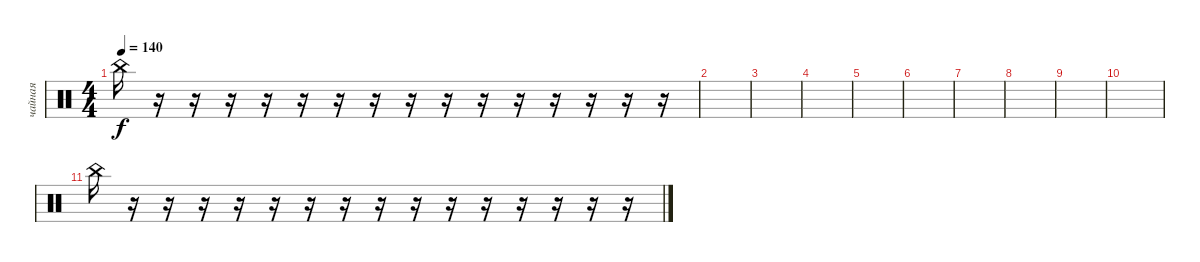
\track ("чайная" "чайная") {mute instrument percussion}
\staff {score}
\articulation defaults
\ts (4 4)
\tempo 140
\clef neutral
\ks c "China (hit)".16{dy f}
r.16 r.16 r.16 r.16 r.16 r.16 r.16 r.16 r.16 r.16 r.16 r.16 r.16 r.16 r.16 |
|
|
|
|
|
|
|
|
|
"China (hit)".16 r.16 r.16 r.16 r.16 r.16 r.16 r.16 r.16 r.16 r.16 r.16 r.16 r.16 r.16 r.16
